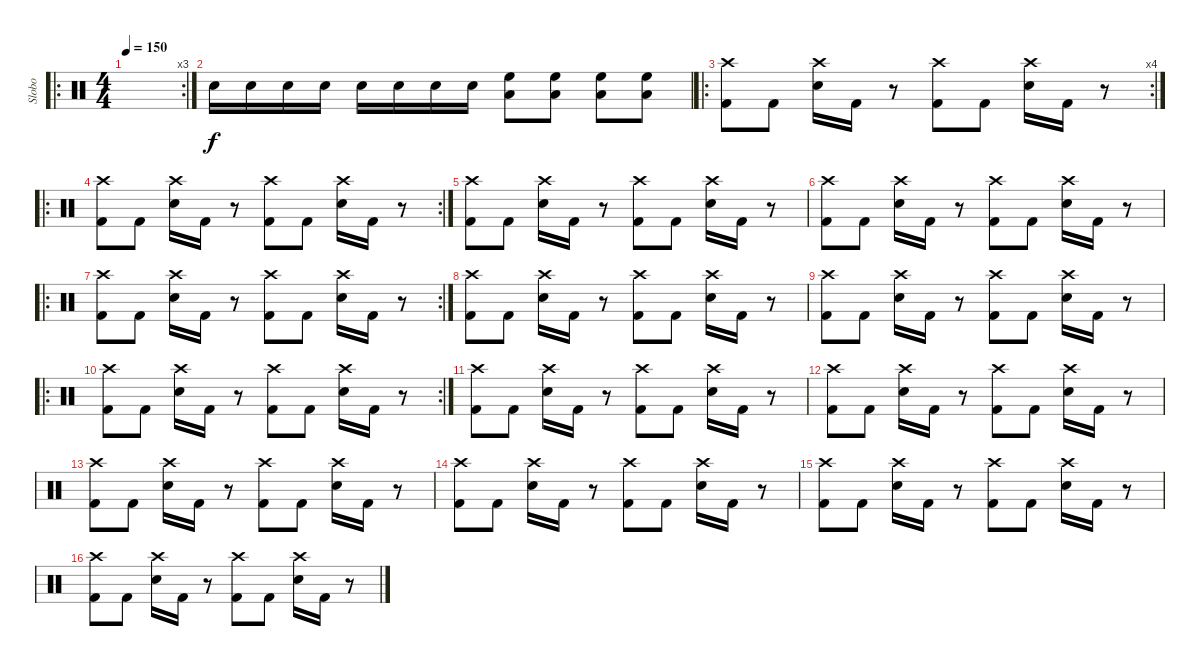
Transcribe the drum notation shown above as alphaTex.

\track ("Slobo" "Slobo") {instrument percussion}
\staff {score}
\articulation defaults
\ro
\rc 3
\ts (4 4)
\tempo 150
\clef neutral
\ks c
|
"Snare (hit) 2".16 "Snare (hit) 2".16 "Snare (hit) 2".16 "Snare (hit) 2".16 "Snare (hit) 2".16 "Snare (hit) 2".16 "Snare (hit) 2".16 "Snare (hit) 2".16 ("High Floor Tom (hit)" "Low Floor Tom (hit)").8 ("High Floor Tom (hit)" "Low Floor Tom (hit)").8 ("High Floor Tom (hit)" "Low Floor Tom (hit)").8 ("High Floor Tom (hit)" "Low Floor Tom (hit)").8 |
\ro
\rc 4
("Crash high (hit)" "Kick (hit) 2").8 "Kick (hit) 2".8 ("Crash high (hit)" "Snare (hit) 2").16 "Kick (hit) 2".16 r.8 ("Crash high (hit)" "Kick (hit) 2").8 "Kick (hit) 2".8 ("Crash high (hit)" "Snare (hit) 2").16 "Kick (hit) 2".16 r.8 |
\ro
\rc 2
("Crash high (hit)" "Kick (hit) 2").8 "Kick (hit) 2".8 ("Crash high (hit)" "Snare (hit) 2").16 "Kick (hit) 2".16 r.8 ("Crash high (hit)" "Kick (hit) 2").8 "Kick (hit) 2".8 ("Crash high (hit)" "Snare (hit) 2").16 "Kick (hit) 2".16 r.8 |
("Crash high (hit)" "Kick (hit) 2").8 "Kick (hit) 2".8 ("Crash high (hit)" "Snare (hit) 2").16 "Kick (hit) 2".16 r.8 ("Crash high (hit)" "Kick (hit) 2").8 "Kick (hit) 2".8 ("Crash high (hit)" "Snare (hit) 2").16 "Kick (hit) 2".16 r.8 |
("Crash high (hit)" "Kick (hit) 2").8 "Kick (hit) 2".8 ("Crash high (hit)" "Snare (hit) 2").16 "Kick (hit) 2".16 r.8 ("Crash high (hit)" "Kick (hit) 2").8 "Kick (hit) 2".8 ("Crash high (hit)" "Snare (hit) 2").16 "Kick (hit) 2".16 r.8 |
\ro
\rc 2
("Crash high (hit)" "Kick (hit) 2").8 "Kick (hit) 2".8 ("Crash high (hit)" "Snare (hit) 2").16 "Kick (hit) 2".16 r.8 ("Crash high (hit)" "Kick (hit) 2").8 "Kick (hit) 2".8 ("Crash high (hit)" "Snare (hit) 2").16 "Kick (hit) 2".16 r.8 |
("Crash high (hit)" "Kick (hit) 2").8 "Kick (hit) 2".8 ("Crash high (hit)" "Snare (hit) 2").16 "Kick (hit) 2".16 r.8 ("Crash high (hit)" "Kick (hit) 2").8 "Kick (hit) 2".8 ("Crash high (hit)" "Snare (hit) 2").16 "Kick (hit) 2".16 r.8 |
("Crash high (hit)" "Kick (hit) 2").8 "Kick (hit) 2".8 ("Crash high (hit)" "Snare (hit) 2").16 "Kick (hit) 2".16 r.8 ("Crash high (hit)" "Kick (hit) 2").8 "Kick (hit) 2".8 ("Crash high (hit)" "Snare (hit) 2").16 "Kick (hit) 2".16 r.8 |
\ro
\rc 2
("Crash high (hit)" "Kick (hit) 2").8 "Kick (hit) 2".8 ("Crash high (hit)" "Snare (hit) 2").16 "Kick (hit) 2".16 r.8 ("Crash high (hit)" "Kick (hit) 2").8 "Kick (hit) 2".8 ("Crash high (hit)" "Snare (hit) 2").16 "Kick (hit) 2".16 r.8 |
("Crash high (hit)" "Kick (hit) 2").8 "Kick (hit) 2".8 ("Crash high (hit)" "Snare (hit) 2").16 "Kick (hit) 2".16 r.8 ("Crash high (hit)" "Kick (hit) 2").8 "Kick (hit) 2".8 ("Crash high (hit)" "Snare (hit) 2").16 "Kick (hit) 2".16 r.8 |
("Crash high (hit)" "Kick (hit) 2").8 "Kick (hit) 2".8 ("Crash high (hit)" "Snare (hit) 2").16 "Kick (hit) 2".16 r.8 ("Crash high (hit)" "Kick (hit) 2").8 "Kick (hit) 2".8 ("Crash high (hit)" "Snare (hit) 2").16 "Kick (hit) 2".16 r.8 |
("Crash high (hit)" "Kick (hit) 2").8 "Kick (hit) 2".8 ("Crash high (hit)" "Snare (hit) 2").16 "Kick (hit) 2".16 r.8 ("Crash high (hit)" "Kick (hit) 2").8 "Kick (hit) 2".8 ("Crash high (hit)" "Snare (hit) 2").16 "Kick (hit) 2".16 r.8 |
("Crash high (hit)" "Kick (hit) 2").8 "Kick (hit) 2".8 ("Crash high (hit)" "Snare (hit) 2").16 "Kick (hit) 2".16 r.8 ("Crash high (hit)" "Kick (hit) 2").8 "Kick (hit) 2".8 ("Crash high (hit)" "Snare (hit) 2").16 "Kick (hit) 2".16 r.8 |
("Crash high (hit)" "Kick (hit) 2").8 "Kick (hit) 2".8 ("Crash high (hit)" "Snare (hit) 2").16 "Kick (hit) 2".16 r.8 ("Crash high (hit)" "Kick (hit) 2").8 "Kick (hit) 2".8 ("Crash high (hit)" "Snare (hit) 2").16 "Kick (hit) 2".16 r.8 |
("Crash high (hit)" "Kick (hit) 2").8 "Kick (hit) 2".8 ("Crash high (hit)" "Snare (hit) 2").16 "Kick (hit) 2".16 r.8 ("Crash high (hit)" "Kick (hit) 2").8 "Kick (hit) 2".8 ("Crash high (hit)" "Snare (hit) 2").16 "Kick (hit) 2".16 r.8
